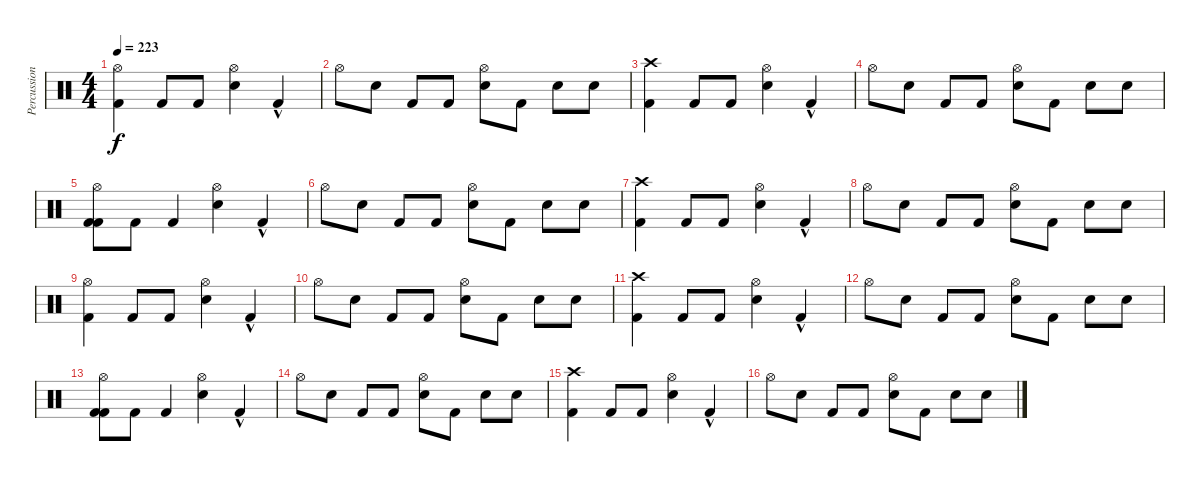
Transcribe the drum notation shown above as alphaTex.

\track ("Percussion" "Percussion") {instrument percussion}
\staff {score}
\articulation defaults
\ts (4 4)
\tempo 223
\clef neutral
\ks c
("Hi-Hat (open)" "Kick (hit) 2").4{dy f} "Kick (hit) 2".8 "Kick (hit) 2".8 ("Hi-Hat (open)" "Electric Snare (hit)").4 "Kick (hit) 2"{hac}.4 |
"Hi-Hat (open)".8 "Electric Snare (hit)".8 "Kick (hit) 2".8 "Kick (hit) 2".8 ("Hi-Hat (open)" "Electric Snare (hit)").8 "Kick (hit) 2".8 "Electric Snare (hit)".8 "Electric Snare (hit)".8 |
("Crash high (hit)" "Kick (hit) 2").4 "Kick (hit) 2".8 "Kick (hit) 2".8 ("Hi-Hat (open)" "Electric Snare (hit)").4 "Kick (hit) 2"{hac}.4 |
"Hi-Hat (open)".8 "Electric Snare (hit)".8 "Kick (hit) 2".8 "Kick (hit) 2".8 ("Hi-Hat (open)" "Electric Snare (hit)").8 "Kick (hit) 2".8 "Electric Snare (hit)".8 "Electric Snare (hit)".8 |
("Hi-Hat (open)" "Kick (hit) 2" "Kick (hit) 2").8 "Kick (hit) 2".8 "Kick (hit) 2".4 ("Hi-Hat (open)" "Electric Snare (hit)").4 "Kick (hit) 2"{hac}.4 |
"Hi-Hat (open)".8 "Electric Snare (hit)".8 "Kick (hit) 2".8 "Kick (hit) 2".8 ("Hi-Hat (open)" "Electric Snare (hit)").8 "Kick (hit) 2".8 "Electric Snare (hit)".8 "Electric Snare (hit)".8 |
("Crash high (hit)" "Kick (hit) 2").4 "Kick (hit) 2".8 "Kick (hit) 2".8 ("Hi-Hat (open)" "Electric Snare (hit)").4 "Kick (hit) 2"{hac}.4 |
"Hi-Hat (open)".8 "Electric Snare (hit)".8 "Kick (hit) 2".8 "Kick (hit) 2".8 ("Hi-Hat (open)" "Electric Snare (hit)").8 "Kick (hit) 2".8 "Electric Snare (hit)".8 "Electric Snare (hit)".8 |
("Hi-Hat (open)" "Kick (hit) 2").4 "Kick (hit) 2".8 "Kick (hit) 2".8 ("Hi-Hat (open)" "Electric Snare (hit)").4 "Kick (hit) 2"{hac}.4 |
"Hi-Hat (open)".8 "Electric Snare (hit)".8 "Kick (hit) 2".8 "Kick (hit) 2".8 ("Hi-Hat (open)" "Electric Snare (hit)").8 "Kick (hit) 2".8 "Electric Snare (hit)".8 "Electric Snare (hit)".8 |
("Crash high (hit)" "Kick (hit) 2").4 "Kick (hit) 2".8 "Kick (hit) 2".8 ("Hi-Hat (open)" "Electric Snare (hit)").4 "Kick (hit) 2"{hac}.4 |
"Hi-Hat (open)".8 "Electric Snare (hit)".8 "Kick (hit) 2".8 "Kick (hit) 2".8 ("Hi-Hat (open)" "Electric Snare (hit)").8 "Kick (hit) 2".8 "Electric Snare (hit)".8 "Electric Snare (hit)".8 |
("Hi-Hat (open)" "Kick (hit) 2" "Kick (hit) 2").8 "Kick (hit) 2".8 "Kick (hit) 2".4 ("Hi-Hat (open)" "Electric Snare (hit)").4 "Kick (hit) 2"{hac}.4 |
"Hi-Hat (open)".8 "Electric Snare (hit)".8 "Kick (hit) 2".8 "Kick (hit) 2".8 ("Hi-Hat (open)" "Electric Snare (hit)").8 "Kick (hit) 2".8 "Electric Snare (hit)".8 "Electric Snare (hit)".8 |
("Crash high (hit)" "Kick (hit) 2").4 "Kick (hit) 2".8 "Kick (hit) 2".8 ("Hi-Hat (open)" "Electric Snare (hit)").4 "Kick (hit) 2"{hac}.4 |
"Hi-Hat (open)".8 "Electric Snare (hit)".8 "Kick (hit) 2".8 "Kick (hit) 2".8 ("Hi-Hat (open)" "Electric Snare (hit)").8 "Kick (hit) 2".8 "Electric Snare (hit)".8 "Electric Snare (hit)".8
